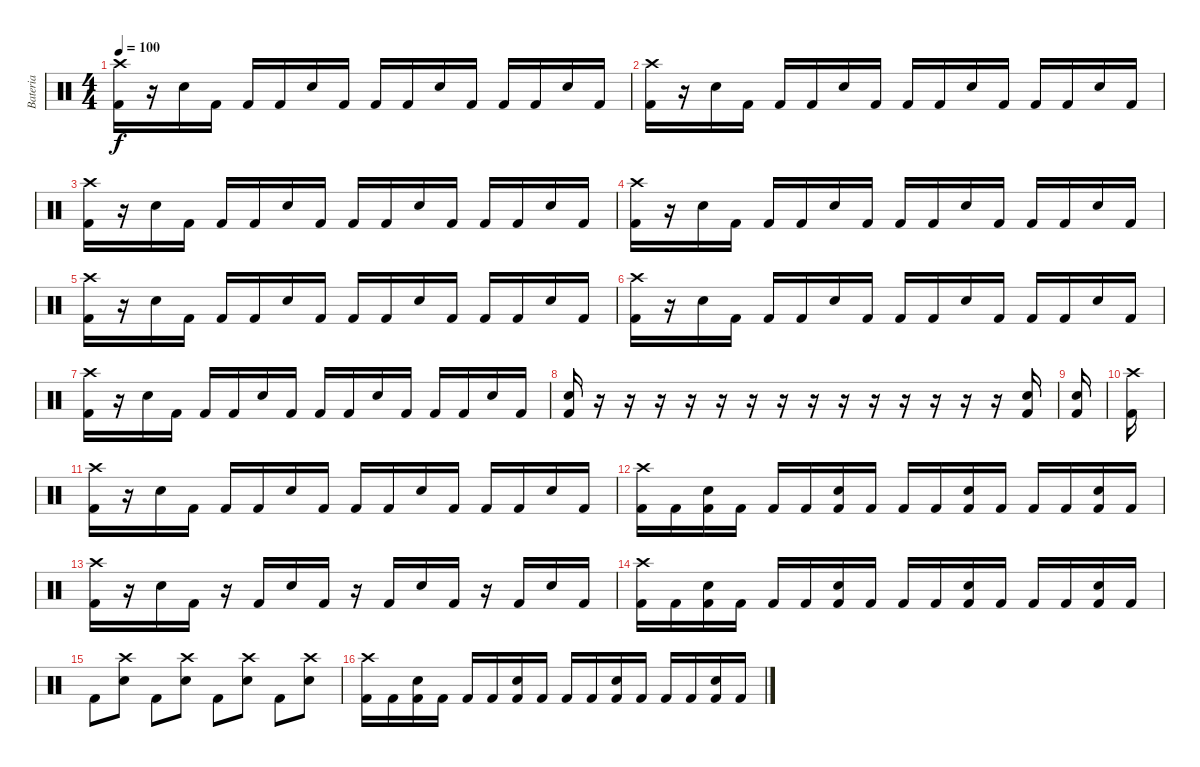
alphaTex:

\track ("Bateria" "Bateria") {instrument percussion}
\staff {score}
\articulation defaults
\ts (4 4)
\tempo 100
\clef neutral
\ks c
("Crash high (hit)" "Kick (hit) 2").16{dy f} r.16 "Snare (hit) 2".16 "Kick (hit) 2".16 "Kick (hit) 2".16 "Kick (hit) 2".16 "Snare (hit) 2".16 "Kick (hit) 2".16 "Kick (hit) 2".16 "Kick (hit) 2".16 "Snare (hit) 2".16 "Kick (hit) 2".16 "Kick (hit) 2".16 "Kick (hit) 2".16 "Snare (hit) 2".16 "Kick (hit) 2".16 |
("Crash high (hit)" "Kick (hit) 2").16 r.16 "Snare (hit) 2".16 "Kick (hit) 2".16 "Kick (hit) 2".16 "Kick (hit) 2".16 "Snare (hit) 2".16 "Kick (hit) 2".16 "Kick (hit) 2".16 "Kick (hit) 2".16 "Snare (hit) 2".16 "Kick (hit) 2".16 "Kick (hit) 2".16 "Kick (hit) 2".16 "Snare (hit) 2".16 "Kick (hit) 2".16 |
("Crash high (hit)" "Kick (hit) 2").16 r.16 "Snare (hit) 2".16 "Kick (hit) 2".16 "Kick (hit) 2".16 "Kick (hit) 2".16 "Snare (hit) 2".16 "Kick (hit) 2".16 "Kick (hit) 2".16 "Kick (hit) 2".16 "Snare (hit) 2".16 "Kick (hit) 2".16 "Kick (hit) 2".16 "Kick (hit) 2".16 "Snare (hit) 2".16 "Kick (hit) 2".16 |
("Crash high (hit)" "Kick (hit) 2").16 r.16 "Snare (hit) 2".16 "Kick (hit) 2".16 "Kick (hit) 2".16 "Kick (hit) 2".16 "Snare (hit) 2".16 "Kick (hit) 2".16 "Kick (hit) 2".16 "Kick (hit) 2".16 "Snare (hit) 2".16 "Kick (hit) 2".16 "Kick (hit) 2".16 "Kick (hit) 2".16 "Snare (hit) 2".16 "Kick (hit) 2".16 |
("Crash high (hit)" "Kick (hit) 2").16 r.16 "Snare (hit) 2".16 "Kick (hit) 2".16 "Kick (hit) 2".16 "Kick (hit) 2".16 "Snare (hit) 2".16 "Kick (hit) 2".16 "Kick (hit) 2".16 "Kick (hit) 2".16 "Snare (hit) 2".16 "Kick (hit) 2".16 "Kick (hit) 2".16 "Kick (hit) 2".16 "Snare (hit) 2".16 "Kick (hit) 2".16 |
("Crash high (hit)" "Kick (hit) 2").16 r.16 "Snare (hit) 2".16 "Kick (hit) 2".16 "Kick (hit) 2".16 "Kick (hit) 2".16 "Snare (hit) 2".16 "Kick (hit) 2".16 "Kick (hit) 2".16 "Kick (hit) 2".16 "Snare (hit) 2".16 "Kick (hit) 2".16 "Kick (hit) 2".16 "Kick (hit) 2".16 "Snare (hit) 2".16 "Kick (hit) 2".16 |
("Crash high (hit)" "Kick (hit) 2").16 r.16 "Snare (hit) 2".16 "Kick (hit) 2".16 "Kick (hit) 2".16 "Kick (hit) 2".16 "Snare (hit) 2".16 "Kick (hit) 2".16 "Kick (hit) 2".16 "Kick (hit) 2".16 "Snare (hit) 2".16 "Kick (hit) 2".16 "Kick (hit) 2".16 "Kick (hit) 2".16 "Snare (hit) 2".16 "Kick (hit) 2".16 |
("Kick (hit) 2" "Snare (hit) 2").16 r.16 r.16 r.16 r.16 r.16 r.16 r.16 r.16 r.16 r.16 r.16 r.16 r.16 r.16 ("Kick (hit) 2" "Snare (hit) 2").16 |
("Snare (hit) 2" "Kick (hit) 2").16 |
("Crash high (hit)" "Kick (hit) 2").16 |
("Crash high (hit)" "Kick (hit) 2").16 r.16 "Snare (hit) 2".16 "Kick (hit) 2".16 "Kick (hit) 2".16 "Kick (hit) 2".16 "Snare (hit) 2".16 "Kick (hit) 2".16 "Kick (hit) 2".16 "Kick (hit) 2".16 "Snare (hit) 2".16 "Kick (hit) 2".16 "Kick (hit) 2".16 "Kick (hit) 2".16 "Snare (hit) 2".16 "Kick (hit) 2".16 |
("Crash high (hit)" "Kick (hit) 2").16 "Kick (hit) 2".16 ("Snare (hit) 2" "Kick (hit) 2").16 "Kick (hit) 2".16 "Kick (hit) 2".16 "Kick (hit) 2".16 ("Snare (hit) 2" "Kick (hit) 2").16 "Kick (hit) 2".16 "Kick (hit) 2".16 "Kick (hit) 2".16 ("Snare (hit) 2" "Kick (hit) 2").16 "Kick (hit) 2".16 "Kick (hit) 2".16 "Kick (hit) 2".16 ("Snare (hit) 2" "Kick (hit) 2").16 "Kick (hit) 2".16 |
("Crash high (hit)" "Kick (hit) 2").16 r.16 "Snare (hit) 2".16 "Kick (hit) 2".16 r.16 "Kick (hit) 2".16 "Snare (hit) 2".16 "Kick (hit) 2".16 r.16 "Kick (hit) 2".16 "Snare (hit) 2".16 "Kick (hit) 2".16 r.16 "Kick (hit) 2".16 "Snare (hit) 2".16 "Kick (hit) 2".16 |
("Crash high (hit)" "Kick (hit) 2").16 "Kick (hit) 2".16 ("Snare (hit) 2" "Kick (hit) 2").16 "Kick (hit) 2".16 "Kick (hit) 2".16 "Kick (hit) 2".16 ("Snare (hit) 2" "Kick (hit) 2").16 "Kick (hit) 2".16 "Kick (hit) 2".16 "Kick (hit) 2".16 ("Snare (hit) 2" "Kick (hit) 2").16 "Kick (hit) 2".16 "Kick (hit) 2".16 "Kick (hit) 2".16 ("Snare (hit) 2" "Kick (hit) 2").16 "Kick (hit) 2".16 |
"Kick (hit) 2".8 ("Snare (hit) 2" "Crash high (hit)").8 "Kick (hit) 2".8 ("Snare (hit) 2" "Crash high (hit)").8 "Kick (hit) 2".8 ("Snare (hit) 2" "Crash high (hit)").8 "Kick (hit) 2".8 ("Snare (hit) 2" "Crash high (hit)").8 |
("Crash high (hit)" "Kick (hit) 2").16 "Kick (hit) 2".16 ("Snare (hit) 2" "Kick (hit) 2").16 "Kick (hit) 2".16 "Kick (hit) 2".16 "Kick (hit) 2".16 ("Snare (hit) 2" "Kick (hit) 2").16 "Kick (hit) 2".16 "Kick (hit) 2".16 "Kick (hit) 2".16 ("Snare (hit) 2" "Kick (hit) 2").16 "Kick (hit) 2".16 "Kick (hit) 2".16 "Kick (hit) 2".16 ("Snare (hit) 2" "Kick (hit) 2").16 "Kick (hit) 2".16
